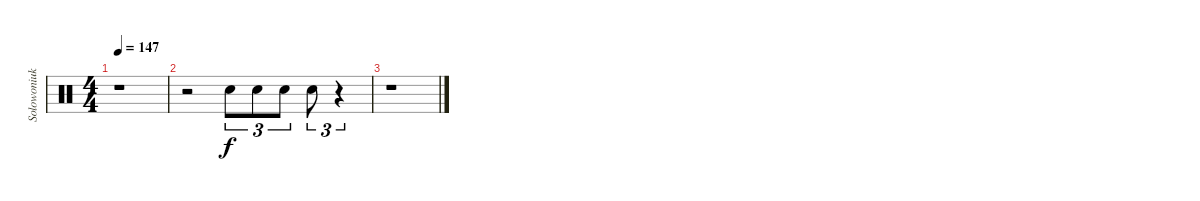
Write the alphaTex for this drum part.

\track ("Solowoniuk " "Solowoniuk") {instrument percussion}
\staff {score}
\articulation defaults
\ts (4 4)
\tempo 147
\clef neutral
\ks c
r.1{dy f} |
r.2 "Snare (hit) 2".8{tu (3 2)} "Snare (hit) 2".8{tu (3 2)} "Snare (hit) 2".8{tu (3 2)} "Snare (hit) 2".8{tu (3 2)} r.4{tu (3 2)} |
r.1
